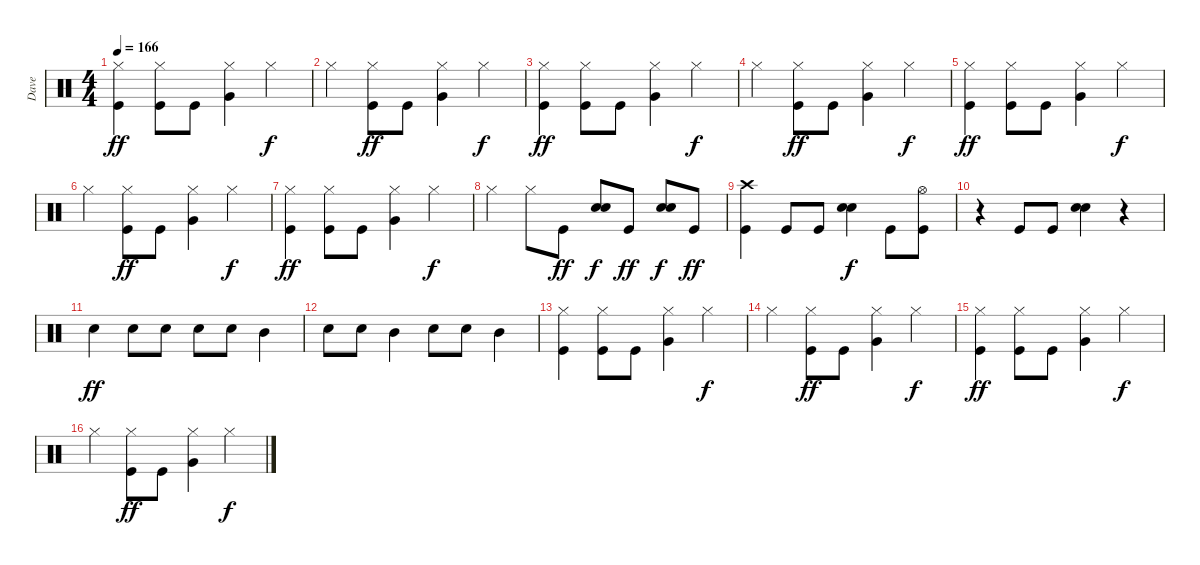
\track ("Dave" "Dave") {instrument percussion}
\staff {score}
\articulation defaults
\ts (4 4)
\tempo 166
\clef neutral
\ks c
("Hi-Hat (closed)" "Kick (hit)").4{dy ff} ("Hi-Hat (closed)" "Kick (hit)").8 "Kick (hit)".8 ("Hi-Hat (closed)" "Very Low Tom (hit)").4 "Hi-Hat (closed)".4{dy f} |
"Hi-Hat (closed)".4 ("Hi-Hat (closed)" "Kick (hit)").8{dy ff} "Kick (hit)".8 ("Hi-Hat (closed)" "Very Low Tom (hit)").4 "Hi-Hat (closed)".4{dy f} |
("Hi-Hat (closed)" "Kick (hit)").4{dy ff} ("Hi-Hat (closed)" "Kick (hit)").8 "Kick (hit)".8 ("Hi-Hat (closed)" "Very Low Tom (hit)").4 "Hi-Hat (closed)".4{dy f} |
"Hi-Hat (closed)".4 ("Hi-Hat (closed)" "Kick (hit)").8{dy ff} "Kick (hit)".8 ("Hi-Hat (closed)" "Very Low Tom (hit)").4 "Hi-Hat (closed)".4{dy f} |
("Hi-Hat (closed)" "Kick (hit)").4{dy ff} ("Hi-Hat (closed)" "Kick (hit)").8 "Kick (hit)".8 ("Hi-Hat (closed)" "Very Low Tom (hit)").4 "Hi-Hat (closed)".4{dy f} |
"Hi-Hat (closed)".4 ("Hi-Hat (closed)" "Kick (hit)").8{dy ff} "Kick (hit)".8 ("Hi-Hat (closed)" "Very Low Tom (hit)").4 "Hi-Hat (closed)".4{dy f} |
("Hi-Hat (closed)" "Kick (hit)").4{dy ff} ("Hi-Hat (closed)" "Kick (hit)").8 "Kick (hit)".8 ("Hi-Hat (closed)" "Very Low Tom (hit)").4 "Hi-Hat (closed)".4{dy f} |
"Hi-Hat (closed)".4 "Hi-Hat (closed)".8 "Kick (hit)".8{dy ff} ("Snare (hit) 2" "Snare (hit) 2").8{dy f} "Kick (hit)".8{dy ff} ("Snare (hit) 2" "Snare (hit) 2").8{dy f} "Kick (hit)".8{dy ff} |
("Crash high (hit)" "Kick (hit)").4 "Kick (hit)".8 "Kick (hit)".8 ("Snare (hit) 2" "Snare (hit) 2").4{dy f} "Kick (hit)".8 ("Hi-Hat (open)" "Kick (hit)").8 |
r.4 "Kick (hit)".8 "Kick (hit)".8 ("Snare (hit) 2" "Snare (hit) 2").4 r.4 |
"Snare (hit) 2".4{dy ff} "Snare (hit) 2".8 "Snare (hit) 2".8 "Snare (hit) 2".8 "Snare (hit) 2".8 "Mid Tom (hit)".4 |
"Snare (hit) 2".8 "Snare (hit) 2".8 "Mid Tom (hit)".4 "Snare (hit) 2".8 "Snare (hit) 2".8 "Mid Tom (hit)".4 |
("Hi-Hat (closed)" "Kick (hit)").4 ("Hi-Hat (closed)" "Kick (hit)").8 "Kick (hit)".8 ("Hi-Hat (closed)" "Very Low Tom (hit)").4 "Hi-Hat (closed)".4{dy f} |
"Hi-Hat (closed)".4 ("Hi-Hat (closed)" "Kick (hit)").8{dy ff} "Kick (hit)".8 ("Hi-Hat (closed)" "Very Low Tom (hit)").4 "Hi-Hat (closed)".4{dy f} |
("Hi-Hat (closed)" "Kick (hit)").4{dy ff} ("Hi-Hat (closed)" "Kick (hit)").8 "Kick (hit)".8 ("Hi-Hat (closed)" "Very Low Tom (hit)").4 "Hi-Hat (closed)".4{dy f} |
"Hi-Hat (closed)".4 ("Hi-Hat (closed)" "Kick (hit)").8{dy ff} "Kick (hit)".8 ("Hi-Hat (closed)" "Very Low Tom (hit)").4 "Hi-Hat (closed)".4{dy f}
